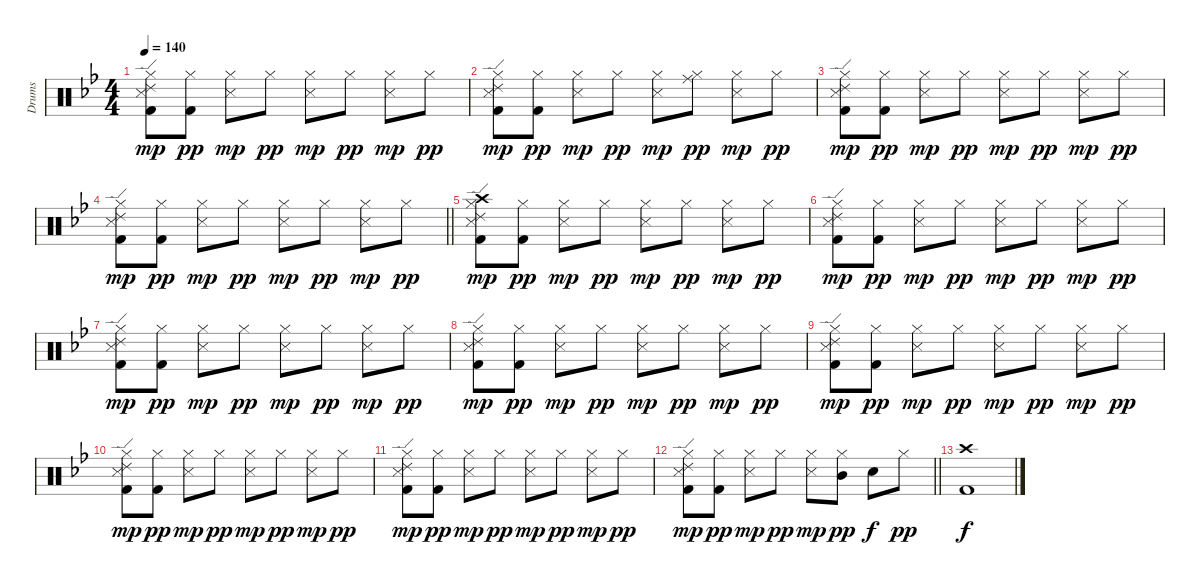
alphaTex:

\track ("Drums" "Drums") {instrument percussion}
\staff {score}
\articulation defaults
\ts (4 4)
\tempo 140
\clef neutral
\ks bb
("Ride (edge) 2" "Kick (hit) 2" "Snare (side stick) 3" "Hi-Hat (closed)").8{dy mp} ("Kick (hit) 2" "Hi-Hat (closed)").8{dy pp} ("Snare (side stick) 3" "Hi-Hat (closed)").8{dy mp} "Hi-Hat (closed)".8{dy pp} ("Hi-Hat (closed)" "Snare (side stick) 3").8{dy mp} "Hi-Hat (closed)".8{dy pp} ("Hi-Hat (closed)" "Snare (side stick) 3").8{dy mp} "Hi-Hat (closed)".8{dy pp} |
("Ride (edge) 2" "Kick (hit) 2" "Snare (side stick) 3" "Hi-Hat (closed)").8{dy mp} ("Kick (hit) 2" "Hi-Hat (closed)").8{dy pp} ("Snare (side stick) 3" "Hi-Hat (closed)").8{dy mp} "Hi-Hat (closed)".8{dy pp} ("Hi-Hat (closed)" "Snare (side stick) 3").8{dy mp} ("Ride (middle)" "Hi-Hat (closed)").8{dy pp} ("Hi-Hat (closed)" "Snare (side stick) 3").8{dy mp} "Hi-Hat (closed)".8{dy pp} |
("Ride (edge) 2" "Kick (hit) 2" "Snare (side stick) 3" "Hi-Hat (closed)").8{dy mp} ("Kick (hit) 2" "Hi-Hat (closed)").8{dy pp} ("Snare (side stick) 3" "Hi-Hat (closed)").8{dy mp} "Hi-Hat (closed)".8{dy pp} ("Hi-Hat (closed)" "Snare (side stick) 3").8{dy mp} "Hi-Hat (closed)".8{dy pp} ("Hi-Hat (closed)" "Snare (side stick) 3").8{dy mp} "Hi-Hat (closed)".8{dy pp} |
\barLineRight lightlight
("Ride (edge) 2" "Kick (hit) 2" "Snare (side stick) 3" "Hi-Hat (closed)").8{dy mp} ("Kick (hit) 2" "Hi-Hat (closed)").8{dy pp} ("Snare (side stick) 3" "Hi-Hat (closed)").8{dy mp} "Hi-Hat (closed)".8{dy pp} ("Hi-Hat (closed)" "Snare (side stick) 3").8{dy mp} "Hi-Hat (closed)".8{dy pp} ("Hi-Hat (closed)" "Snare (side stick) 3").8{dy mp} "Hi-Hat (closed)".8{dy pp} |
("Ride (edge) 2" "Kick (hit) 2" "Snare (side stick) 3" "Hi-Hat (closed)" "Crash high (hit)").8{dy mp} ("Kick (hit) 2" "Hi-Hat (closed)").8{dy pp} ("Snare (side stick) 3" "Hi-Hat (closed)").8{dy mp} "Hi-Hat (closed)".8{dy pp} ("Hi-Hat (closed)" "Snare (side stick) 3").8{dy mp} "Hi-Hat (closed)".8{dy pp} ("Hi-Hat (closed)" "Snare (side stick) 3").8{dy mp} "Hi-Hat (closed)".8{dy pp} |
("Ride (edge) 2" "Kick (hit) 2" "Snare (side stick) 3" "Hi-Hat (closed)").8{dy mp} ("Kick (hit) 2" "Hi-Hat (closed)").8{dy pp} ("Snare (side stick) 3" "Hi-Hat (closed)").8{dy mp} "Hi-Hat (closed)".8{dy pp} ("Hi-Hat (closed)" "Snare (side stick) 3").8{dy mp} "Hi-Hat (closed)".8{dy pp} ("Hi-Hat (closed)" "Snare (side stick) 3").8{dy mp} "Hi-Hat (closed)".8{dy pp} |
("Ride (edge) 2" "Kick (hit) 2" "Snare (side stick) 3" "Hi-Hat (closed)").8{dy mp} ("Kick (hit) 2" "Hi-Hat (closed)").8{dy pp} ("Snare (side stick) 3" "Hi-Hat (closed)").8{dy mp} "Hi-Hat (closed)".8{dy pp} ("Hi-Hat (closed)" "Snare (side stick) 3").8{dy mp} "Hi-Hat (closed)".8{dy pp} ("Hi-Hat (closed)" "Snare (side stick) 3").8{dy mp} "Hi-Hat (closed)".8{dy pp} |
("Ride (edge) 2" "Kick (hit) 2" "Snare (side stick) 3" "Hi-Hat (closed)").8{dy mp} ("Kick (hit) 2" "Hi-Hat (closed)").8{dy pp} ("Snare (side stick) 3" "Hi-Hat (closed)").8{dy mp} "Hi-Hat (closed)".8{dy pp} ("Hi-Hat (closed)" "Snare (side stick) 3").8{dy mp} "Hi-Hat (closed)".8{dy pp} ("Hi-Hat (closed)" "Snare (side stick) 3").8{dy mp} "Hi-Hat (closed)".8{dy pp} |
("Ride (edge) 2" "Kick (hit) 2" "Snare (side stick) 3" "Hi-Hat (closed)").8{dy mp} ("Kick (hit) 2" "Hi-Hat (closed)").8{dy pp} ("Snare (side stick) 3" "Hi-Hat (closed)").8{dy mp} "Hi-Hat (closed)".8{dy pp} ("Hi-Hat (closed)" "Snare (side stick) 3").8{dy mp} "Hi-Hat (closed)".8{dy pp} ("Hi-Hat (closed)" "Snare (side stick) 3").8{dy mp} "Hi-Hat (closed)".8{dy pp} |
("Ride (edge) 2" "Kick (hit) 2" "Snare (side stick) 3" "Hi-Hat (closed)").8{dy mp} ("Kick (hit) 2" "Hi-Hat (closed)").8{dy pp} ("Snare (side stick) 3" "Hi-Hat (closed)").8{dy mp} "Hi-Hat (closed)".8{dy pp} ("Hi-Hat (closed)" "Snare (side stick) 3").8{dy mp} "Hi-Hat (closed)".8{dy pp} ("Hi-Hat (closed)" "Snare (side stick) 3").8{dy mp} "Hi-Hat (closed)".8{dy pp} |
("Ride (edge) 2" "Kick (hit) 2" "Snare (side stick) 3" "Hi-Hat (closed)").8{dy mp} ("Kick (hit) 2" "Hi-Hat (closed)").8{dy pp} ("Snare (side stick) 3" "Hi-Hat (closed)").8{dy mp} "Hi-Hat (closed)".8{dy pp} ("Hi-Hat (closed)" "Snare (side stick) 3").8{dy mp} "Hi-Hat (closed)".8{dy pp} ("Hi-Hat (closed)" "Snare (side stick) 3").8{dy mp} "Hi-Hat (closed)".8{dy pp} |
\barLineRight lightlight
("Ride (edge) 2" "Kick (hit) 2" "Snare (side stick) 3" "Hi-Hat (closed)").8{dy mp} ("Kick (hit) 2" "Hi-Hat (closed)").8{dy pp} ("Snare (side stick) 3" "Hi-Hat (closed)").8{dy mp} "Hi-Hat (closed)".8{dy pp} ("Hi-Hat (closed)" "Snare (side stick) 3").8{dy mp} ("Mid Tom (hit)" "Hi-Hat (closed)").8{dy pp} "Electric Snare (hit)".8{dy f} "Hi-Hat (closed)".8{dy pp} |
("Crash high (hit)" "Kick (hit) 2").1{dy f}
